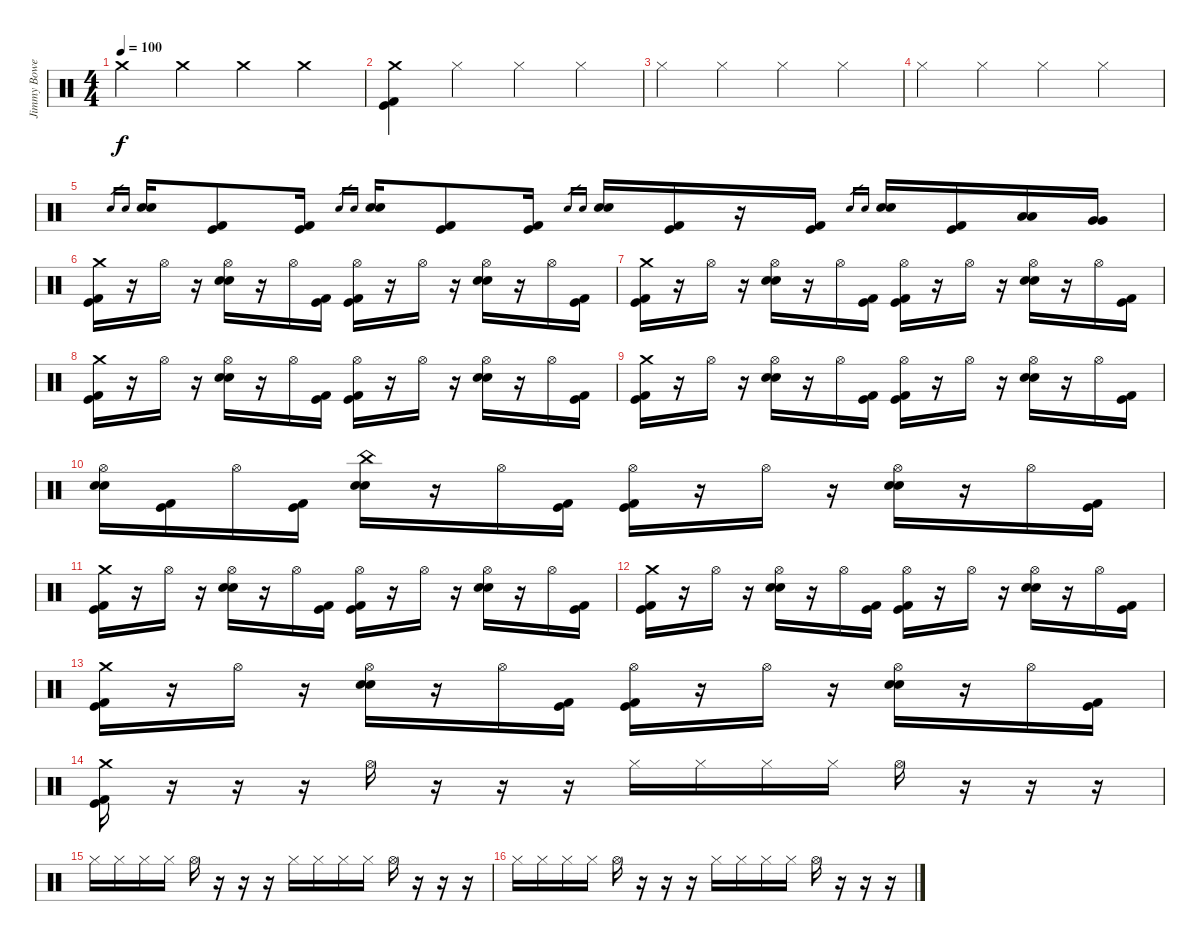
\track ("Jimmy Bower" "Jimmy Bowe") {instrument percussion}
\staff {score}
\articulation defaults
\ts (4 4)
\tempo 100
\clef neutral
\ks c "Crash medium (hit)".4{dy f} "Crash medium (hit)".4 "Crash medium (hit)".4 "Crash medium (hit)".4
|
("Crash medium (hit)" "Kick (hit) 2" "Kick (hit)").4 "Hi-Hat (closed)".4 "Hi-Hat (closed)".4 "Hi-Hat (closed)".4 |
"Hi-Hat (closed)".4 "Hi-Hat (closed)".4 "Hi-Hat (closed)".4 "Hi-Hat (closed)".4 |
"Hi-Hat (closed)".4 "Hi-Hat (closed)".4 "Hi-Hat (closed)".4 "Hi-Hat (closed)".4 |
"Electric Snare (hit)".16{gr} "Electric Snare (hit)".16{gr} ("Electric Snare (hit)" "Electric Snare (hit)").16 ("Kick (hit) 2" "Kick (hit)").8 ("Kick (hit) 2" "Kick (hit)").16 "Electric Snare (hit)".16{gr} "Electric Snare (hit)".16{gr} ("Electric Snare (hit)" "Electric Snare (hit)").16 ("Kick (hit) 2" "Kick (hit)").8 ("Kick (hit) 2" "Kick (hit)").16 "Electric Snare (hit)".16{gr} "Electric Snare (hit)".16{gr} ("Electric Snare (hit)" "Electric Snare (hit)").16 ("Kick (hit) 2" "Kick (hit)").16 r.16 ("Kick (hit) 2" "Kick (hit)").16 "Electric Snare (hit)".16{gr} "Electric Snare (hit)".16{gr} ("Electric Snare (hit)" "Electric Snare (hit)").16 ("Kick (hit) 2" "Kick (hit)").16 ("Low Tom (hit)" "Low Tom (hit)").16 ("Very Low Tom (hit)" "Very Low Tom (hit)").16 |
("Crash medium (hit)" "Kick (hit) 2" "Kick (hit)").16 r.16 "Hi-Hat (open)".16 r.16 ("Hi-Hat (open)" "Electric Snare (hit)" "Electric Snare (hit)").16 r.16 "Hi-Hat (open)".16 ("Kick (hit) 2" "Kick (hit)").16 ("Hi-Hat (open)" "Kick (hit) 2" "Kick (hit)").16 r.16 "Hi-Hat (open)".16 r.16 ("Hi-Hat (open)" "Electric Snare (hit)" "Electric Snare (hit)").16 r.16 "Hi-Hat (open)".16 ("Kick (hit) 2" "Kick (hit)").16 |
("Crash medium (hit)" "Kick (hit) 2" "Kick (hit)").16 r.16 "Hi-Hat (open)".16 r.16 ("Hi-Hat (open)" "Electric Snare (hit)" "Electric Snare (hit)").16 r.16 "Hi-Hat (open)".16 ("Kick (hit) 2" "Kick (hit)").16 ("Hi-Hat (open)" "Kick (hit) 2" "Kick (hit)").16 r.16 "Hi-Hat (open)".16 r.16 ("Hi-Hat (open)" "Electric Snare (hit)" "Electric Snare (hit)").16 r.16 "Hi-Hat (open)".16 ("Kick (hit) 2" "Kick (hit)").16 |
("Crash medium (hit)" "Kick (hit) 2" "Kick (hit)").16 r.16 "Hi-Hat (open)".16 r.16 ("Hi-Hat (open)" "Electric Snare (hit)" "Electric Snare (hit)").16 r.16 "Hi-Hat (open)".16 ("Kick (hit) 2" "Kick (hit)").16 ("Hi-Hat (open)" "Kick (hit) 2" "Kick (hit)").16 r.16 "Hi-Hat (open)".16 r.16 ("Hi-Hat (open)" "Electric Snare (hit)" "Electric Snare (hit)").16 r.16 "Hi-Hat (open)".16 ("Kick (hit) 2" "Kick (hit)").16 |
("Crash medium (hit)" "Kick (hit) 2" "Kick (hit)").16 r.16 "Hi-Hat (open)".16 r.16 ("Hi-Hat (open)" "Electric Snare (hit)" "Electric Snare (hit)").16 r.16 "Hi-Hat (open)".16 ("Kick (hit) 2" "Kick (hit)").16 ("Hi-Hat (open)" "Kick (hit) 2" "Kick (hit)").16 r.16 "Hi-Hat (open)".16 r.16 ("Hi-Hat (open)" "Electric Snare (hit)" "Electric Snare (hit)").16 r.16 "Hi-Hat (open)".16 ("Kick (hit) 2" "Kick (hit)").16 |
("Hi-Hat (open)" "Electric Snare (hit)" "Electric Snare (hit)").16 ("Kick (hit) 2" "Kick (hit)").16 "Hi-Hat (open)".16 ("Kick (hit) 2" "Kick (hit)").16 ("China (hit)" "Electric Snare (hit)" "Electric Snare (hit)").16 r.16 "Hi-Hat (open)".16 ("Kick (hit) 2" "Kick (hit)").16 ("Hi-Hat (open)" "Kick (hit) 2" "Kick (hit)").16 r.16 "Hi-Hat (open)".16 r.16 ("Hi-Hat (open)" "Electric Snare (hit)" "Electric Snare (hit)").16 r.16 "Hi-Hat (open)".16 ("Kick (hit) 2" "Kick (hit)").16 |
("Crash medium (hit)" "Kick (hit) 2" "Kick (hit)").16 r.16 "Hi-Hat (open)".16 r.16 ("Hi-Hat (open)" "Electric Snare (hit)" "Electric Snare (hit)").16 r.16 "Hi-Hat (open)".16 ("Kick (hit) 2" "Kick (hit)").16 ("Hi-Hat (open)" "Kick (hit) 2" "Kick (hit)").16 r.16 "Hi-Hat (open)".16 r.16 ("Hi-Hat (open)" "Electric Snare (hit)" "Electric Snare (hit)").16 r.16 "Hi-Hat (open)".16 ("Kick (hit) 2" "Kick (hit)").16 |
("Crash medium (hit)" "Kick (hit) 2" "Kick (hit)").16 r.16 "Hi-Hat (open)".16 r.16 ("Hi-Hat (open)" "Electric Snare (hit)" "Electric Snare (hit)").16 r.16 "Hi-Hat (open)".16 ("Kick (hit) 2" "Kick (hit)").16 ("Hi-Hat (open)" "Kick (hit) 2" "Kick (hit)").16 r.16 "Hi-Hat (open)".16 r.16 ("Hi-Hat (open)" "Electric Snare (hit)" "Electric Snare (hit)").16 r.16 "Hi-Hat (open)".16 ("Kick (hit) 2" "Kick (hit)").16 |
("Crash medium (hit)" "Kick (hit) 2" "Kick (hit)").16 r.16 "Hi-Hat (open)".16 r.16 ("Hi-Hat (open)" "Electric Snare (hit)" "Electric Snare (hit)").16 r.16 "Hi-Hat (open)".16 ("Kick (hit) 2" "Kick (hit)").16 ("Hi-Hat (open)" "Kick (hit) 2" "Kick (hit)").16 r.16 "Hi-Hat (open)".16 r.16 ("Hi-Hat (open)" "Electric Snare (hit)" "Electric Snare (hit)").16 r.16 "Hi-Hat (open)".16 ("Kick (hit) 2" "Kick (hit)").16 |
("Crash medium (hit)" "Kick (hit) 2" "Kick (hit)").16 r.16 r.16 r.16 "Hi-Hat (open)".16 r.16 r.16 r.16 "Hi-Hat (closed)".16 "Hi-Hat (closed)".16 "Hi-Hat (closed)".16 "Hi-Hat (closed)".16 "Hi-Hat (open)".16 r.16 r.16 r.16 |
"Hi-Hat (closed)".16 "Hi-Hat (closed)".16 "Hi-Hat (closed)".16 "Hi-Hat (closed)".16 "Hi-Hat (open)".16 r.16 r.16 r.16 "Hi-Hat (closed)".16 "Hi-Hat (closed)".16 "Hi-Hat (closed)".16 "Hi-Hat (closed)".16 "Hi-Hat (open)".16 r.16 r.16 r.16 |
"Hi-Hat (closed)".16 "Hi-Hat (closed)".16 "Hi-Hat (closed)".16 "Hi-Hat (closed)".16 "Hi-Hat (open)".16 r.16 r.16 r.16 "Hi-Hat (closed)".16 "Hi-Hat (closed)".16 "Hi-Hat (closed)".16 "Hi-Hat (closed)".16 "Hi-Hat (open)".16 r.16 r.16 r.16
